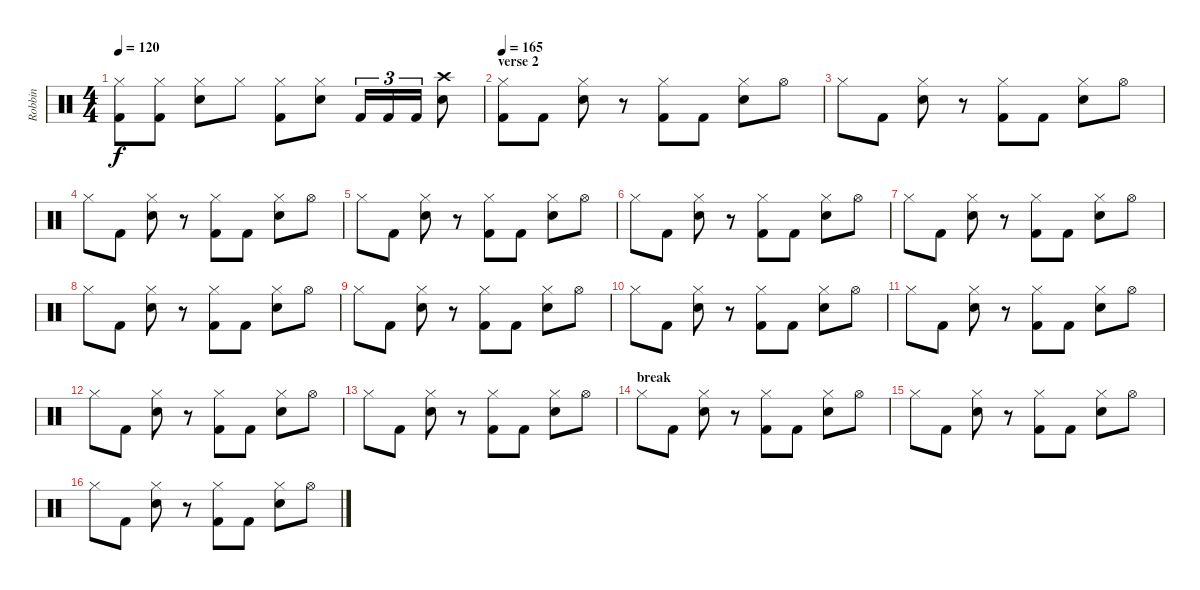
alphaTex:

\track ("Robbin" "Robbin") {instrument percussion}
\staff {score}
\articulation defaults
\ts (4 4)
\tempo 120
\clef neutral
\ks c
("Hi-Hat (closed)" "Kick (hit) 2").8{dy f} ("Hi-Hat (closed)" "Kick (hit) 2").8 ("Hi-Hat (closed)" "Snare (hit) 2").8 "Hi-Hat (closed)".8 ("Hi-Hat (closed)" "Kick (hit) 2").8 ("Hi-Hat (closed)" "Snare (hit) 2").8 "Kick (hit) 2".16{tu (3 2)} "Kick (hit) 2".16{tu (3 2)} "Kick (hit) 2".16{tu (3 2)} ("Crash high (hit)" "Snare (hit) 2").8 |
\section ("" "verse 2")
\tempo 165
("Hi-Hat (closed)" "Kick (hit) 2").8 "Kick (hit) 2".8 ("Hi-Hat (closed)" "Snare (hit) 2").8 r.8 ("Hi-Hat (closed)" "Kick (hit) 2").8 "Kick (hit) 2".8 ("Hi-Hat (closed)" "Snare (hit) 2").8 "Hi-Hat (open)".8 |
"Hi-Hat (closed)".8 "Kick (hit) 2".8 ("Hi-Hat (closed)" "Snare (hit) 2").8 r.8 ("Hi-Hat (closed)" "Kick (hit) 2").8 "Kick (hit) 2".8 ("Hi-Hat (closed)" "Snare (hit) 2").8 "Hi-Hat (open)".8 |
"Hi-Hat (closed)".8 "Kick (hit) 2".8 ("Hi-Hat (closed)" "Snare (hit) 2").8 r.8 ("Hi-Hat (closed)" "Kick (hit) 2").8 "Kick (hit) 2".8 ("Hi-Hat (closed)" "Snare (hit) 2").8 "Hi-Hat (open)".8 |
"Hi-Hat (closed)".8 "Kick (hit) 2".8 ("Hi-Hat (closed)" "Snare (hit) 2").8 r.8 ("Hi-Hat (closed)" "Kick (hit) 2").8 "Kick (hit) 2".8 ("Hi-Hat (closed)" "Snare (hit) 2").8 "Hi-Hat (open)".8 |
"Hi-Hat (closed)".8 "Kick (hit) 2".8 ("Hi-Hat (closed)" "Snare (hit) 2").8 r.8 ("Hi-Hat (closed)" "Kick (hit) 2").8 "Kick (hit) 2".8 ("Hi-Hat (closed)" "Snare (hit) 2").8 "Hi-Hat (open)".8 |
"Hi-Hat (closed)".8 "Kick (hit) 2".8 ("Hi-Hat (closed)" "Snare (hit) 2").8 r.8 ("Hi-Hat (closed)" "Kick (hit) 2").8 "Kick (hit) 2".8 ("Hi-Hat (closed)" "Snare (hit) 2").8 "Hi-Hat (open)".8 |
"Hi-Hat (closed)".8 "Kick (hit) 2".8 ("Hi-Hat (closed)" "Snare (hit) 2").8 r.8 ("Hi-Hat (closed)" "Kick (hit) 2").8 "Kick (hit) 2".8 ("Hi-Hat (closed)" "Snare (hit) 2").8 "Hi-Hat (open)".8 |
"Hi-Hat (closed)".8 "Kick (hit) 2".8 ("Hi-Hat (closed)" "Snare (hit) 2").8 r.8 ("Hi-Hat (closed)" "Kick (hit) 2").8 "Kick (hit) 2".8 ("Hi-Hat (closed)" "Snare (hit) 2").8 "Hi-Hat (open)".8 |
"Hi-Hat (closed)".8 "Kick (hit) 2".8 ("Hi-Hat (closed)" "Snare (hit) 2").8 r.8 ("Hi-Hat (closed)" "Kick (hit) 2").8 "Kick (hit) 2".8 ("Hi-Hat (closed)" "Snare (hit) 2").8 "Hi-Hat (open)".8 |
"Hi-Hat (closed)".8 "Kick (hit) 2".8 ("Hi-Hat (closed)" "Snare (hit) 2").8 r.8 ("Hi-Hat (closed)" "Kick (hit) 2").8 "Kick (hit) 2".8 ("Hi-Hat (closed)" "Snare (hit) 2").8 "Hi-Hat (open)".8 |
"Hi-Hat (closed)".8 "Kick (hit) 2".8 ("Hi-Hat (closed)" "Snare (hit) 2").8 r.8 ("Hi-Hat (closed)" "Kick (hit) 2").8 "Kick (hit) 2".8 ("Hi-Hat (closed)" "Snare (hit) 2").8 "Hi-Hat (open)".8 |
"Hi-Hat (closed)".8 "Kick (hit) 2".8 ("Hi-Hat (closed)" "Snare (hit) 2").8 r.8 ("Hi-Hat (closed)" "Kick (hit) 2").8 "Kick (hit) 2".8 ("Hi-Hat (closed)" "Snare (hit) 2").8 "Hi-Hat (open)".8 |
\section ("" "break")
"Hi-Hat (closed)".8 "Kick (hit) 2".8 ("Hi-Hat (closed)" "Snare (hit) 2").8 r.8 ("Hi-Hat (closed)" "Kick (hit) 2").8 "Kick (hit) 2".8 ("Hi-Hat (closed)" "Snare (hit) 2").8 "Hi-Hat (open)".8 |
"Hi-Hat (closed)".8 "Kick (hit) 2".8 ("Hi-Hat (closed)" "Snare (hit) 2").8 r.8 ("Hi-Hat (closed)" "Kick (hit) 2").8 "Kick (hit) 2".8 ("Hi-Hat (closed)" "Snare (hit) 2").8 "Hi-Hat (open)".8 |
"Hi-Hat (closed)".8 "Kick (hit) 2".8 ("Hi-Hat (closed)" "Snare (hit) 2").8 r.8 ("Hi-Hat (closed)" "Kick (hit) 2").8 "Kick (hit) 2".8 ("Hi-Hat (closed)" "Snare (hit) 2").8 "Hi-Hat (open)".8
